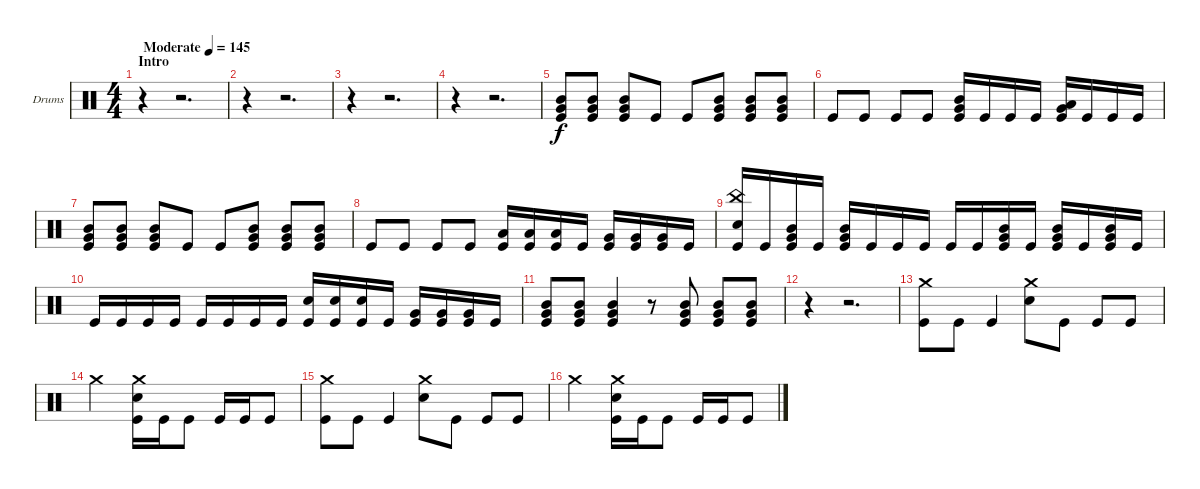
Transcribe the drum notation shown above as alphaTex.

\bracketExtendMode groupsimilarinstruments
\firstSystemTrackNameOrientation horizontal
\otherSystemsTrackNameOrientation horizontal
\track ("Drumkit" "Drums") {instrument percussion}
\staff {score}
\articulation defaults
\ts (4 4)
\beaming (8 2 2 2 2)
\section ("" "Intro")
\tempo (145 "Moderate")
\clef neutral
\ks c
r.4{dy f} r.2{d} |
r.4 r.2{d} |
r.4 r.2{d} |
r.4 r.2{d} |
("Mid Tom (hit)" "Very Low Tom (hit)" "Kick (hit)").8 ("Mid Tom (hit)" "Very Low Tom (hit)" "Kick (hit)").8 ("Mid Tom (hit)" "Very Low Tom (hit)" "Kick (hit)").8 "Kick (hit)".8 "Kick (hit)".8 ("Mid Tom (hit)" "Very Low Tom (hit)" "Kick (hit)").8 ("Mid Tom (hit)" "Very Low Tom (hit)" "Kick (hit)").8 ("Mid Tom (hit)" "Very Low Tom (hit)" "Kick (hit)").8 |
"Kick (hit)".8 "Kick (hit)".8 "Kick (hit)".8 "Kick (hit)".8 ("Mid Tom (hit)" "Very Low Tom (hit)" "Kick (hit)").16 "Kick (hit)".16 "Kick (hit)".16 "Kick (hit)".16 ("Low Tom (hit)" "Very Low Tom (hit)" "Kick (hit)").16 "Kick (hit)".16 "Kick (hit)".16 "Kick (hit)".16 |
("Mid Tom (hit)" "Very Low Tom (hit)" "Kick (hit)").8 ("Mid Tom (hit)" "Very Low Tom (hit)" "Kick (hit)").8 ("Mid Tom (hit)" "Very Low Tom (hit)" "Kick (hit)").8 "Kick (hit)".8 "Kick (hit)".8 ("Mid Tom (hit)" "Very Low Tom (hit)" "Kick (hit)").8 ("Mid Tom (hit)" "Very Low Tom (hit)" "Kick (hit)").8 ("Mid Tom (hit)" "Very Low Tom (hit)" "Kick (hit)").8 |
"Kick (hit)".8 "Kick (hit)".8 "Kick (hit)".8 "Kick (hit)".8 ("Low Tom (hit)" "Kick (hit)").16 ("Low Tom (hit)" "Kick (hit)").16 ("Low Tom (hit)" "Kick (hit)").16 "Kick (hit)".16 ("Very Low Tom (hit)" "Kick (hit)").16 ("Very Low Tom (hit)" "Kick (hit)").16 ("Very Low Tom (hit)" "Kick (hit)").16 "Kick (hit)".16 |
("China (hit)" "Snare (hit) 2" "Kick (hit)").16 "Kick (hit)".16 ("Mid Tom (hit)" "Very Low Tom (hit)" "Kick (hit)").16 "Kick (hit)".16 ("Mid Tom (hit)" "Very Low Tom (hit)" "Kick (hit)").16 "Kick (hit)".16 "Kick (hit)".16 "Kick (hit)".16 "Kick (hit)".16 "Kick (hit)".16 ("Mid Tom (hit)" "Very Low Tom (hit)" "Kick (hit)").16 "Kick (hit)".16 ("Mid Tom (hit)" "Very Low Tom (hit)" "Kick (hit)").16 "Kick (hit)".16 ("Mid Tom (hit)" "Very Low Tom (hit)" "Kick (hit)").16 "Kick (hit)".16 |
"Kick (hit)".16 "Kick (hit)".16 "Kick (hit)".16 "Kick (hit)".16 "Kick (hit)".16 "Kick (hit)".16 "Kick (hit)".16 "Kick (hit)".16 ("Snare (hit) 2" "Kick (hit)").16 ("Snare (hit) 2" "Kick (hit)").16 ("Snare (hit) 2" "Kick (hit)").16 "Kick (hit)".16 ("Very Low Tom (hit)" "Kick (hit)").16 ("Very Low Tom (hit)" "Kick (hit)").16 ("Very Low Tom (hit)" "Kick (hit)").16 "Kick (hit)".16 |
("Mid Tom (hit)" "Very Low Tom (hit)" "Kick (hit)").8 ("Mid Tom (hit)" "Very Low Tom (hit)" "Kick (hit)").8 ("Mid Tom (hit)" "Very Low Tom (hit)" "Kick (hit)").4 r.8 ("Mid Tom (hit)" "Very Low Tom (hit)" "Kick (hit)").8 ("Mid Tom (hit)" "Very Low Tom (hit)" "Kick (hit)").8 ("Mid Tom (hit)" "Very Low Tom (hit)" "Kick (hit)").8 |
r.4 r.2{d} |
("Crash medium (hit)" "Kick (hit)").8 "Kick (hit)".8 "Kick (hit)".4 ("Crash medium (hit)" "Snare (hit) 2").8 "Kick (hit)".8 "Kick (hit)".8 "Kick (hit)".8 |
"Crash medium (hit)".2 ("Crash medium (hit)" "Snare (hit) 2" "Kick (hit)").16 "Kick (hit)".16 "Kick (hit)".8 "Kick (hit)".16 "Kick (hit)".16 "Kick (hit)".8 |
("Crash medium (hit)" "Kick (hit)").8 "Kick (hit)".8 "Kick (hit)".4 ("Crash medium (hit)" "Snare (hit) 2").8 "Kick (hit)".8 "Kick (hit)".8 "Kick (hit)".8 |
"Crash medium (hit)".2 ("Crash medium (hit)" "Snare (hit) 2" "Kick (hit)").16 "Kick (hit)".16 "Kick (hit)".8 "Kick (hit)".16 "Kick (hit)".16 "Kick (hit)".8
